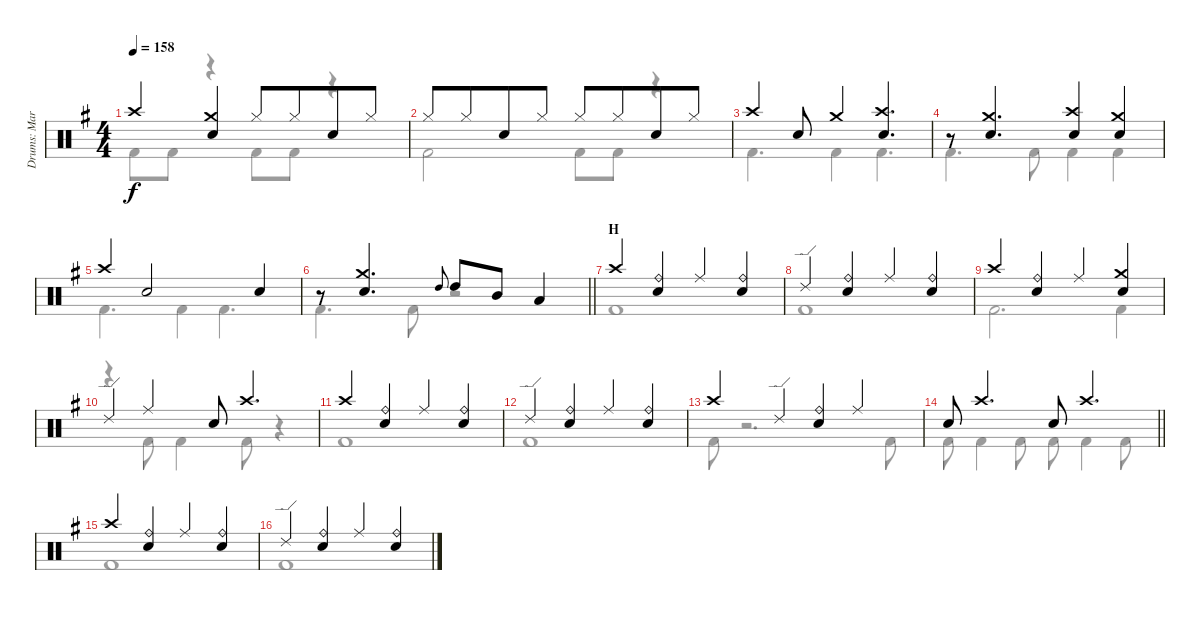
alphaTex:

\track ("Drums: Mark" "Drums: Mar") {instrument percussion}
\staff {score}
\articulation defaults
\voice
\ts (4 4)
\tempo 158
\clef neutral
\ks g "Crash high (hit)".4{dy f}
("Crash medium (hit)" "Snare (hit) 2").4 "Hi-Hat (closed)".8 "Hi-Hat (closed)".8{beam merge} "Snare (hit) 2".8 "Hi-Hat (closed)".8 |
"Hi-Hat (closed)".8 "Hi-Hat (closed)".8{beam merge} "Snare (hit) 2".8 "Hi-Hat (closed)".8 "Hi-Hat (closed)".8 "Hi-Hat (closed)".8{beam merge} "Snare (hit) 2".8 "Hi-Hat (closed)".8 |
"Crash high (hit)".4 "Snare (hit) 2".8 "Crash medium (hit)".4 ("Crash high (hit)" "Snare (hit) 2").4{d} |
r.8 ("Crash medium (hit)" "Snare (hit) 2").4{d} ("Crash high (hit)" "Snare (hit) 2").4 ("Crash medium (hit)" "Snare (hit) 2").4 |
"Crash high (hit)".4 "Snare (hit) 2".2 "Snare (hit) 2".4 |
\barLineRight lightlight
r.8 ("Crash medium (hit)" "Snare (hit) 2").4{d} "High Tom (hit)".8{gr onbeat} "High Tom (hit)".8 "Mid Tom (hit)".8 "Low Tom (hit)".4 |
\section ("" "H")
"Crash high (hit)".4 ("Ride (bell)" "Snare (hit) 2").4 "Ride (middle)".4 ("Ride (bell)" "Snare (hit) 2").4 |
"Ride (edge) 2".4 ("Ride (bell)" "Snare (hit) 2").4 "Ride (middle)".4 ("Ride (bell)" "Snare (hit) 2").4 |
"Crash high (hit)".4 ("Ride (bell)" "Snare (hit) 2").4 "Ride (middle)".4 ("Crash medium (hit)" "Snare (hit) 2").4 |
"Ride (edge) 2".4 "Ride (middle)".4 "Snare (hit) 2".8 "Crash high (hit)".4{d} |
"Crash high (hit)".4 ("Ride (bell)" "Snare (hit) 2").4 "Ride (middle)".4 ("Ride (bell)" "Snare (hit) 2").4 |
"Ride (edge) 2".4 ("Ride (bell)" "Snare (hit) 2").4 "Ride (middle)".4 ("Ride (bell)" "Snare (hit) 2").4 |
"Crash high (hit)".4 "Ride (edge) 2".4 ("Ride (bell)" "Snare (hit) 2").4 "Ride (middle)".4 |
\barLineRight lightlight "Snare (hit) 2".8 "Crash high (hit)".4{d} "Snare (hit) 2".8 "Crash high (hit)".4{d}
|
"Crash high (hit)".4 ("Ride (bell)" "Snare (hit) 2").4 "Ride (middle)".4 ("Ride (bell)" "Snare (hit) 2").4 |
"Ride (edge) 2".4 ("Ride (bell)" "Snare (hit) 2").4 "Ride (middle)".4 ("Ride (bell)" "Snare (hit) 2").4
\voice
\clef neutral
\ottava regular
\simile none
\ks g "Kick (hit) 2".8{dy f} "Kick (hit) 2".8
r.4 "Kick (hit) 2".8 "Kick (hit) 2".8 r.4 |
"Kick (hit) 2".2 "Kick (hit) 2".8 "Kick (hit) 2".8 r.4 |
"Kick (hit) 2".4{d} "Kick (hit) 2".4 "Kick (hit) 2".4{d} |
"Kick (hit) 2".4{d} "Kick (hit) 2".8 "Kick (hit) 2".4 "Kick (hit) 2".4 |
"Kick (hit) 2".4{d} "Kick (hit) 2".4 "Kick (hit) 2".4{d} |
\barLineRight lightlight "Kick (hit) 2".4{d} "Kick (hit) 2".8
r.2 |
"Kick (hit) 2".1 |
"Kick (hit) 2".1 |
"Kick (hit) 2".2{d} "Kick (hit) 2".4 |
r.4 "Kick (hit) 2".8 "Kick (hit) 2".4 "Kick (hit) 2".8 r.4 |
"Kick (hit) 2".1 |
"Kick (hit) 2".1 |
"Kick (hit) 2".8 r.2{d} "Kick (hit) 2".8 |
\barLineRight lightlight "Kick (hit) 2".8 "Kick (hit) 2".4 "Kick (hit) 2".8 "Kick (hit) 2".8 "Kick (hit) 2".4 "Kick (hit) 2".8
|
"Kick (hit) 2".1 |
"Kick (hit) 2".1
